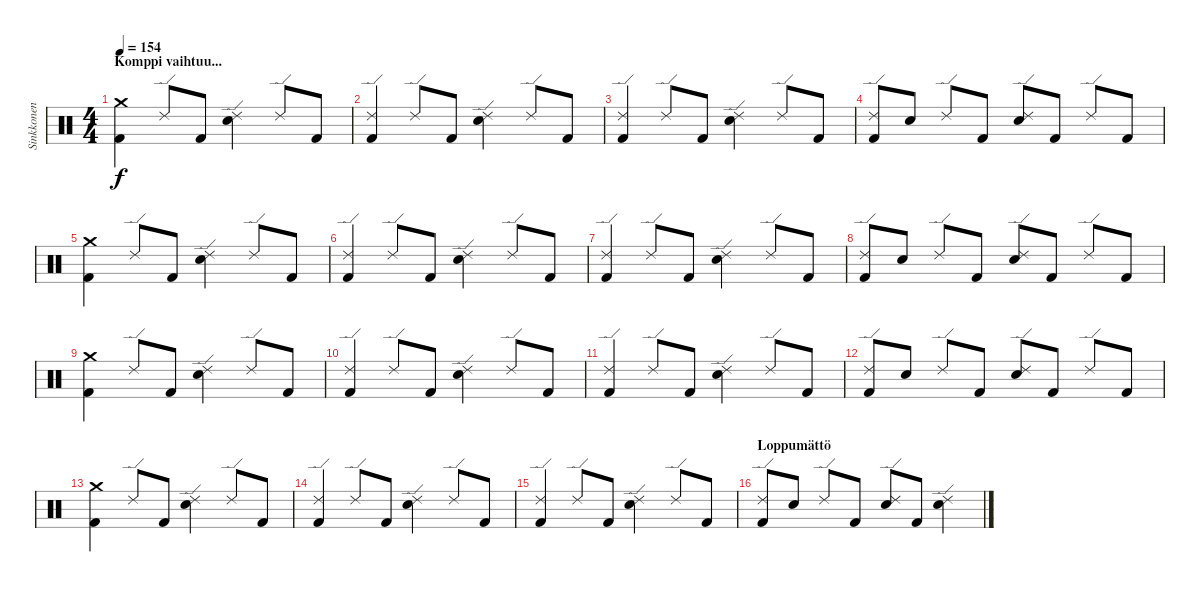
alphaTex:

\track ("Sinkkonen" "Sinkkonen") {instrument percussion}
\staff {score}
\articulation defaults
\ts (4 4)
\section ("" "Komppi vaihtuu...")
\tempo 154
\clef neutral
\ks c
("Kick (hit) 2" "Crash medium (hit)").4{dy f} "Ride (edge) 2".8 "Kick (hit) 2".8 ("Ride (edge) 2" "Snare (hit) 2").4 "Ride (edge) 2".8 "Kick (hit) 2".8 |
("Kick (hit) 2" "Ride (edge) 2").4 "Ride (edge) 2".8 "Kick (hit) 2".8 ("Ride (edge) 2" "Snare (hit) 2").4 "Ride (edge) 2".8 "Kick (hit) 2".8 |
("Kick (hit) 2" "Ride (edge) 2").4 "Ride (edge) 2".8 "Kick (hit) 2".8 ("Ride (edge) 2" "Snare (hit) 2").4 "Ride (edge) 2".8 "Kick (hit) 2".8 |
("Kick (hit) 2" "Ride (edge) 2").8 "Snare (hit) 2".8 "Ride (edge) 2".8 "Kick (hit) 2".8 ("Ride (edge) 2" "Snare (hit) 2").8 "Kick (hit) 2".8 "Ride (edge) 2".8 "Kick (hit) 2".8 |
("Kick (hit) 2" "Crash medium (hit)").4 "Ride (edge) 2".8 "Kick (hit) 2".8 ("Ride (edge) 2" "Snare (hit) 2").4 "Ride (edge) 2".8 "Kick (hit) 2".8 |
("Kick (hit) 2" "Ride (edge) 2").4 "Ride (edge) 2".8 "Kick (hit) 2".8 ("Ride (edge) 2" "Snare (hit) 2").4 "Ride (edge) 2".8 "Kick (hit) 2".8 |
("Kick (hit) 2" "Ride (edge) 2").4 "Ride (edge) 2".8 "Kick (hit) 2".8 ("Ride (edge) 2" "Snare (hit) 2").4 "Ride (edge) 2".8 "Kick (hit) 2".8 |
("Kick (hit) 2" "Ride (edge) 2").8 "Snare (hit) 2".8 "Ride (edge) 2".8 "Kick (hit) 2".8 ("Ride (edge) 2" "Snare (hit) 2").8 "Kick (hit) 2".8 "Ride (edge) 2".8 "Kick (hit) 2".8 |
("Kick (hit) 2" "Crash medium (hit)").4 "Ride (edge) 2".8 "Kick (hit) 2".8 ("Ride (edge) 2" "Snare (hit) 2").4 "Ride (edge) 2".8 "Kick (hit) 2".8 |
("Kick (hit) 2" "Ride (edge) 2").4 "Ride (edge) 2".8 "Kick (hit) 2".8 ("Ride (edge) 2" "Snare (hit) 2").4 "Ride (edge) 2".8 "Kick (hit) 2".8 |
("Kick (hit) 2" "Ride (edge) 2").4 "Ride (edge) 2".8 "Kick (hit) 2".8 ("Ride (edge) 2" "Snare (hit) 2").4 "Ride (edge) 2".8 "Kick (hit) 2".8 |
("Kick (hit) 2" "Ride (edge) 2").8 "Snare (hit) 2".8 "Ride (edge) 2".8 "Kick (hit) 2".8 ("Ride (edge) 2" "Snare (hit) 2").8 "Kick (hit) 2".8 "Ride (edge) 2".8 "Kick (hit) 2".8 |
("Kick (hit) 2" "Crash medium (hit)").4 "Ride (edge) 2".8 "Kick (hit) 2".8 ("Ride (edge) 2" "Snare (hit) 2").4 "Ride (edge) 2".8 "Kick (hit) 2".8 |
("Kick (hit) 2" "Ride (edge) 2").4 "Ride (edge) 2".8 "Kick (hit) 2".8 ("Ride (edge) 2" "Snare (hit) 2").4 "Ride (edge) 2".8 "Kick (hit) 2".8 |
("Kick (hit) 2" "Ride (edge) 2").4 "Ride (edge) 2".8 "Kick (hit) 2".8 ("Ride (edge) 2" "Snare (hit) 2").4 "Ride (edge) 2".8 "Kick (hit) 2".8 |
\section ("" "Loppumättö")
("Kick (hit) 2" "Ride (edge) 2").8 "Snare (hit) 2".8 "Ride (edge) 2".8 "Kick (hit) 2".8 ("Ride (edge) 2" "Snare (hit) 2").8 "Kick (hit) 2".8 ("Ride (edge) 2" "Snare (hit) 2").4
